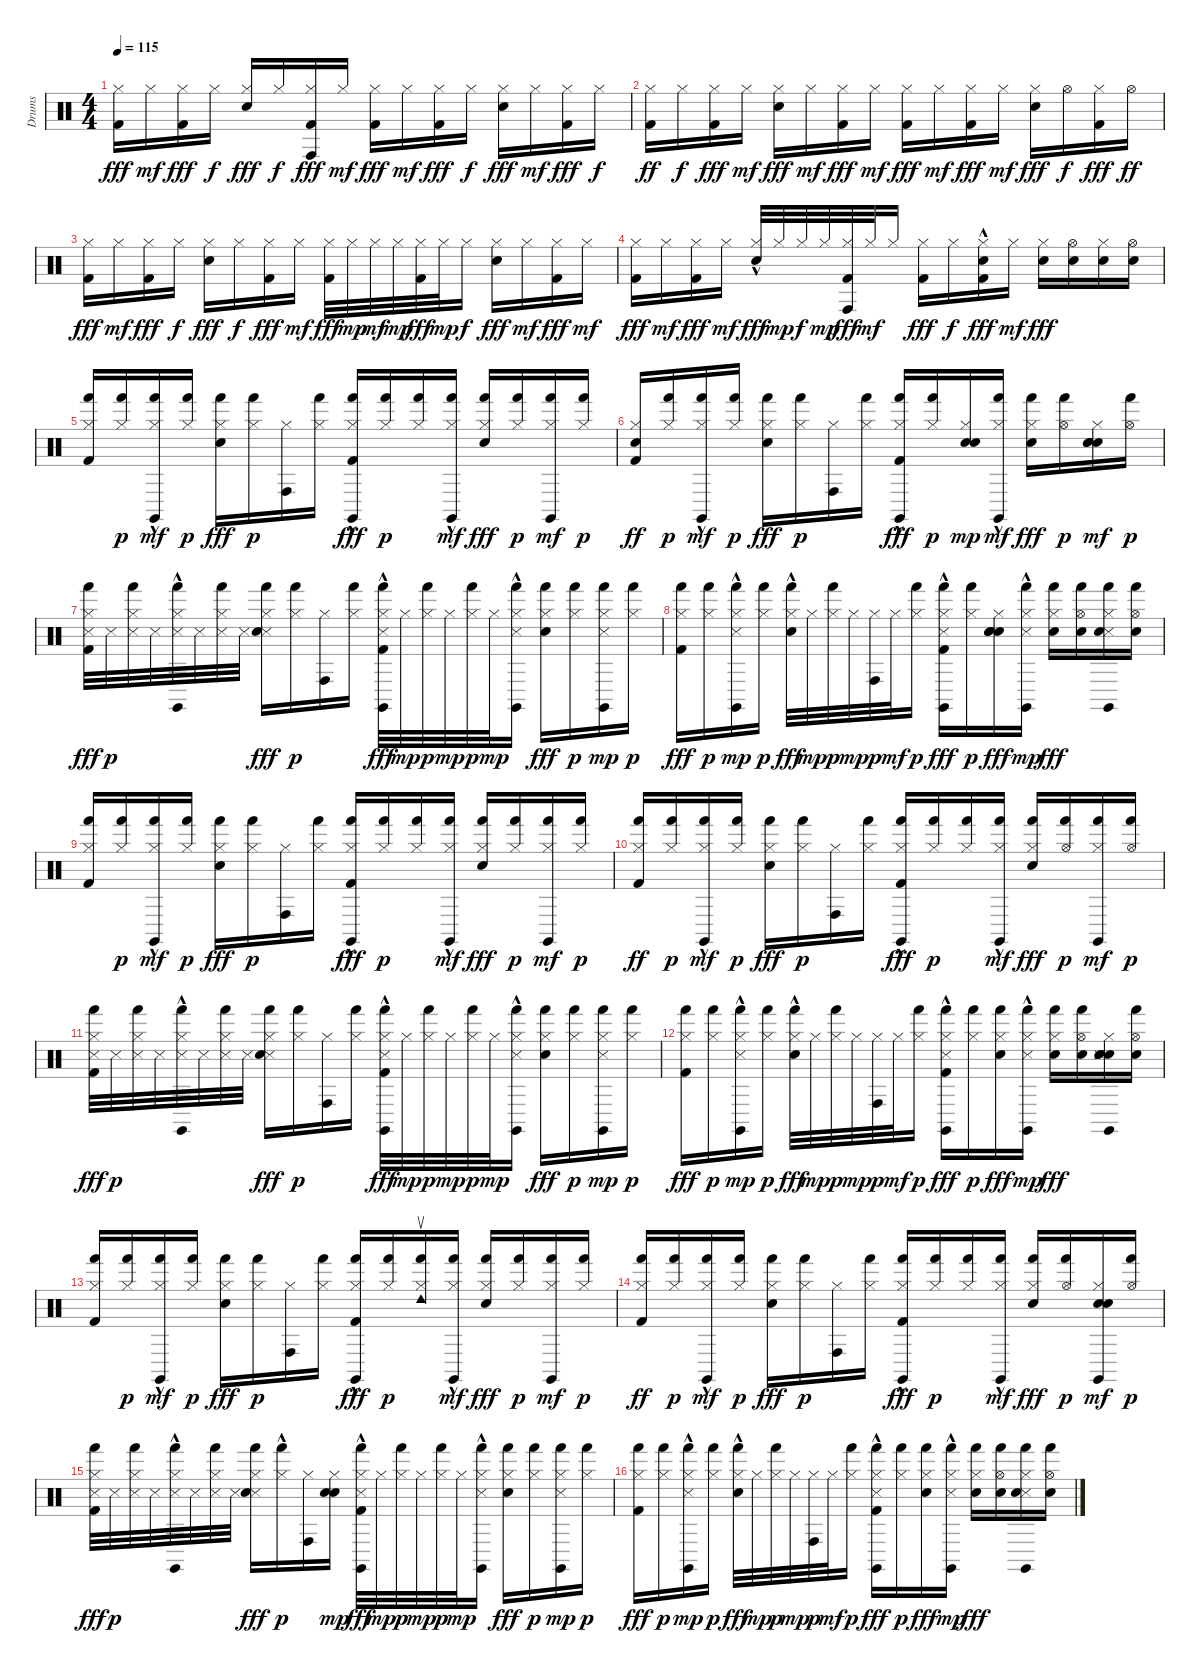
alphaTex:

\track ("Drums" "Drums") {instrument percussion}
\staff {score}
\articulation defaults
\ts (4 4)
\tempo 115
\clef neutral
\ks c
("Hi-Hat (closed)" "Kick (hit) 2").16{dy fff} "Hi-Hat (closed)".16{dy mf} ("Hi-Hat (closed)" "Kick (hit) 2").16{dy fff} "Hi-Hat (closed)".16{dy f} ("Hi-Hat (closed)" "Snare (hit) 2").16{dy fff} "Hi-Hat (closed)".16{dy f} ("Hi-Hat (closed)" "Conga high (hit)" "Kick (hit) 2").16{dy fff} "Hi-Hat (closed)".16{dy mf} ("Hi-Hat (closed)" "Kick (hit) 2").16{dy fff} "Hi-Hat (closed)".16{dy mf} ("Hi-Hat (closed)" "Kick (hit) 2").16{dy fff} "Hi-Hat (closed)".16{dy f} ("Hi-Hat (closed)" "Snare (hit) 2").16{dy fff} "Hi-Hat (closed)".16{dy mf} ("Hi-Hat (closed)" "Kick (hit) 2").16{dy fff} "Hi-Hat (closed)".16{dy f} |
("Hi-Hat (closed)" "Kick (hit) 2").16{dy ff} "Hi-Hat (closed)".16{dy f} ("Hi-Hat (closed)" "Kick (hit) 2").16{dy fff} "Hi-Hat (closed)".16{dy mf} ("Hi-Hat (closed)" "Snare (hit) 2").16{dy fff} "Hi-Hat (closed)".16{dy mf} ("Hi-Hat (closed)" "Kick (hit) 2").16{dy fff} "Hi-Hat (closed)".16{dy mf} ("Hi-Hat (closed)" "Kick (hit) 2").16{dy fff} "Hi-Hat (closed)".16{dy mf} ("Hi-Hat (closed)" "Kick (hit) 2").16{dy fff} "Hi-Hat (closed)".16{dy mf} ("Hi-Hat (closed)" "Snare (hit) 2").16{dy fff} "Hi-Hat (open)".16{dy f} ("Hi-Hat (closed)" "Kick (hit) 2").16{dy fff} "Hi-Hat (open)".16{dy ff} |
("Hi-Hat (closed)" "Kick (hit) 2").16{dy fff} "Hi-Hat (closed)".16{dy mf} ("Hi-Hat (closed)" "Kick (hit) 2").16{dy fff} "Hi-Hat (closed)".16{dy f} ("Hi-Hat (closed)" "Snare (hit) 2").16{dy fff} "Hi-Hat (closed)".16{dy f} ("Hi-Hat (closed)" "Kick (hit) 2").16{dy fff} "Hi-Hat (closed)".16{dy mf} ("Hi-Hat (closed)" "Kick (hit) 2").32{dy fff} "Hi-Hat (closed)".32{dy mp} "Hi-Hat (closed)".32{dy mf} "Hi-Hat (closed)".32{dy mp} ("Hi-Hat (closed)" "Kick (hit) 2").32{dy fff} "Hi-Hat (closed)".32{dy mp} "Hi-Hat (closed)".16{dy f} ("Hi-Hat (closed)" "Snare (hit) 2").16{dy fff} "Hi-Hat (closed)".16{dy mf} ("Hi-Hat (closed)" "Kick (hit) 2").16{dy fff} "Hi-Hat (closed)".16{dy mf} |
("Hi-Hat (closed)" "Kick (hit) 2").16{dy fff} "Hi-Hat (closed)".16{dy mf} ("Hi-Hat (closed)" "Kick (hit) 2").16{dy fff} "Hi-Hat (closed)".16{dy mf} ("Hi-Hat (closed)" "Snare (hit) 2"{hac}).32{dy fff} "Hi-Hat (closed)".32{dy mp} "Hi-Hat (closed)".32{dy f} "Hi-Hat (closed)".32{dy mp} ("Hi-Hat (closed)" "Conga high (hit)" "Kick (hit) 2").32{dy fff} "Hi-Hat (closed)".32{dy mf} "Hi-Hat (closed)".16 ("Hi-Hat (closed)" "Kick (hit) 2").16{dy fff} "Hi-Hat (closed)".16{dy f} ("Hi-Hat (closed)" "Snare (hit) 2" "Kick (hit) 2"{hac}).16{dy fff} "Hi-Hat (closed)".16{dy mf} ("Hi-Hat (closed)" "Snare (hit) 2").16{dy fff} ("Hi-Hat (open)" "Snare (hit) 2").16 ("Hi-Hat (closed)" "Snare (hit) 2").16 ("Hi-Hat (open)" "Snare (hit) 2").16 |
("Hi-Hat (closed)" "Hand (hit)" "Kick (hit) 2").16 ("Hi-Hat (closed)" "Hand (hit)").16{dy p} ("Hi-Hat (closed)" "Hand (hit)" "Claves (hit)"{hac}).16{dy mf} ("Hi-Hat (closed)" "Hand (hit)").16{dy p} ("Hi-Hat (closed)" "Hand (hit)" "Snare (hit) 2").16{dy fff} ("Hi-Hat (closed)" "Hand (hit)").16{dy p} ("Hi-Hat (closed)" "Conga high (hit)").16 ("Hi-Hat (closed)" "Hand (hit)").16 ("Hi-Hat (closed)" "Hand (hit)" "Claves (hit)"{hac} "Kick (hit) 2").16{dy fff} ("Hi-Hat (closed)" "Hand (hit)").16{dy p} ("Hi-Hat (closed)" "Hand (hit)").16 ("Hi-Hat (closed)" "Hand (hit)" "Claves (hit)"{hac}).16{dy mf} ("Hi-Hat (closed)" "Hand (hit)" "Snare (hit) 2").16{dy fff} ("Hi-Hat (closed)" "Hand (hit)").16{dy p} ("Hi-Hat (closed)" "Hand (hit)" "Claves (hit)").16{dy mf} ("Hi-Hat (closed)" "Hand (hit)").16{dy p} |
("Hi-Hat (closed)" "Snare (hit)" "Kick (hit) 2").16{dy ff} ("Hi-Hat (closed)" "Hand (hit)").16{dy p} ("Hi-Hat (closed)" "Hand (hit)" "Claves (hit)"{hac}).16{dy mf} ("Hi-Hat (closed)" "Hand (hit)").16{dy p} ("Hi-Hat (closed)" "Hand (hit)" "Snare (hit) 2").16{dy fff} ("Hi-Hat (closed)" "Hand (hit)").16{dy p} ("Hi-Hat (closed)" "Conga high (hit)").16 ("Hi-Hat (closed)" "Hand (hit)").16 ("Hi-Hat (closed)" "Hand (hit)" "Claves (hit)"{hac} "Kick (hit) 2").16{dy fff} ("Hi-Hat (closed)" "Hand (hit)").16{dy p} ("Hi-Hat (closed)" "Snare (hit)" "Snare (hit)").16{dy mp} ("Hi-Hat (closed)" "Hand (hit)" "Claves (hit)"{hac}).16{dy mf} ("Hi-Hat (closed)" "Hand (hit)" "Snare (hit) 2").16{dy fff} ("Hi-Hat (open)" "Hand (hit)").16{dy p} ("Hi-Hat (closed)" "Snare (hit)" "Snare (hit)" "Snare (hit)").16{dy mf} ("Hi-Hat (open)" "Hand (hit)").16{dy p} |
("Hi-Hat (closed)" "Hand (hit)" "Snare (side stick) 3" "Kick (hit) 2").32{dy fff} "Snare (side stick) 3".32{dy p} ("Hi-Hat (closed)" "Hand (hit)" "Snare (side stick) 3").32 "Snare (side stick) 3".32 ("Hi-Hat (closed)" "Hand (hit)" "Claves (hit)"{hac} "Snare (side stick) 3").32 "Snare (side stick) 3".32 ("Hi-Hat (closed)" "Hand (hit)" "Snare (side stick) 3").32 "Snare (side stick) 3".32 ("Hi-Hat (closed)" "Hand (hit)" "Snare (side stick) 3" "Snare (hit) 2").16{dy fff} ("Hi-Hat (closed)" "Hand (hit)").16{dy p} ("Hi-Hat (closed)" "Conga high (hit)").16 ("Hi-Hat (closed)" "Hand (hit)").16 ("Hi-Hat (closed)" "Hand (hit)" "Claves (hit)"{hac} "Snare (side stick) 3"{hac} "Kick (hit) 2").32{dy fff} "Hi-Hat (closed)".32{dy mp} ("Hi-Hat (closed)" "Hand (hit)").32{dy p} "Hi-Hat (closed)".32{dy mp} ("Hi-Hat (closed)" "Hand (hit)").32{dy p} "Hi-Hat (closed)".32{dy mp} ("Hi-Hat (closed)" "Hand (hit)" "Claves (hit)"{hac} "Snare (side stick) 3"{hac}).16 ("Hi-Hat (closed)" "Hand (hit)" "Snare (hit) 2").16{dy fff} ("Hi-Hat (closed)" "Hand (hit)").16{dy p} ("Hi-Hat (closed)" "Hand (hit)" "Claves (hit)" "Snare (side stick) 3").16{dy mp} ("Hi-Hat (closed)" "Hand (hit)").16{dy p} |
("Hi-Hat (closed)" "Hand (hit)" "Kick (hit) 2").16{dy fff} ("Hi-Hat (closed)" "Hand (hit)").16{dy p} ("Hi-Hat (closed)" "Hand (hit)" "Claves (hit)"{hac} "Snare (side stick) 3"{hac}).16{dy mp} ("Hi-Hat (closed)" "Hand (hit)").16{dy p} ("Hi-Hat (closed)" "Hand (hit)" "Snare (hit) 2"{hac}).32{dy fff} "Hi-Hat (closed)".32{dy mp} ("Hi-Hat (closed)" "Hand (hit)").32{dy p} "Hi-Hat (closed)".32{dy mp} ("Hi-Hat (closed)" "Conga high (hit)").32{dy p} "Hi-Hat (closed)".32{dy mf} ("Hi-Hat (closed)" "Hand (hit)").16{dy p} ("Hi-Hat (closed)" "Hand (hit)" "Claves (hit)"{hac} "Snare (side stick) 3"{hac} "Kick (hit) 2").16{dy fff} ("Hi-Hat (closed)" "Hand (hit)").16{dy p} ("Hi-Hat (closed)" "Snare (hit)" "Snare (hit)" "Snare (hit) 2").16{dy fff} ("Hi-Hat (closed)" "Hand (hit)" "Claves (hit)"{hac} "Snare (side stick) 3"{hac}).16{dy mp} ("Hi-Hat (closed)" "Hand (hit)" "Snare (hit) 2").16{dy fff} ("Hi-Hat (open)" "Hand (hit)" "Snare (hit) 2").16 ("Hi-Hat (closed)" "Hand (hit)" "Claves (hit)" "Snare (side stick) 3" "Snare (hit) 2").16 ("Hi-Hat (open)" "Hand (hit)" "Snare (hit) 2").16 |
("Hi-Hat (closed)" "Hand (hit)" "Kick (hit) 2").16 ("Hi-Hat (closed)" "Hand (hit)").16{dy p} ("Hi-Hat (closed)" "Hand (hit)" "Claves (hit)"{hac}).16{dy mf} ("Hi-Hat (closed)" "Hand (hit)").16{dy p} ("Hi-Hat (closed)" "Hand (hit)" "Snare (hit) 2").16{dy fff} ("Hi-Hat (closed)" "Hand (hit)").16{dy p} ("Hi-Hat (closed)" "Conga high (hit)").16 ("Hi-Hat (closed)" "Hand (hit)").16 ("Hi-Hat (closed)" "Hand (hit)" "Claves (hit)"{hac} "Kick (hit) 2").16{dy fff} ("Hi-Hat (closed)" "Hand (hit)").16{dy p} ("Hi-Hat (closed)" "Hand (hit)").16 ("Hi-Hat (closed)" "Hand (hit)" "Claves (hit)"{hac}).16{dy mf} ("Hi-Hat (closed)" "Hand (hit)" "Snare (hit) 2").16{dy fff} ("Hi-Hat (closed)" "Hand (hit)").16{dy p} ("Hi-Hat (closed)" "Hand (hit)" "Claves (hit)").16{dy mf} ("Hi-Hat (closed)" "Hand (hit)").16{dy p} |
("Hi-Hat (closed)" "Hand (hit)" "Kick (hit) 2").16{dy ff} ("Hi-Hat (closed)" "Hand (hit)").16{dy p} ("Hi-Hat (closed)" "Hand (hit)" "Claves (hit)"{hac}).16{dy mf} ("Hi-Hat (closed)" "Hand (hit)").16{dy p} ("Hi-Hat (closed)" "Hand (hit)" "Snare (hit) 2").16{dy fff} ("Hi-Hat (closed)" "Hand (hit)").16{dy p} ("Hi-Hat (closed)" "Conga high (hit)").16 ("Hi-Hat (closed)" "Hand (hit)").16 ("Hi-Hat (closed)" "Hand (hit)" "Claves (hit)"{hac} "Kick (hit) 2").16{dy fff} ("Hi-Hat (closed)" "Hand (hit)").16{dy p} ("Hi-Hat (closed)" "Hand (hit)").16 ("Hi-Hat (closed)" "Hand (hit)" "Claves (hit)"{hac}).16{dy mf} ("Hi-Hat (closed)" "Hand (hit)" "Snare (hit) 2").16{dy fff} ("Hi-Hat (open)" "Hand (hit)").16{dy p} ("Hi-Hat (closed)" "Hand (hit)" "Claves (hit)").16{dy mf} ("Hi-Hat (open)" "Hand (hit)").16{dy p} |
("Hi-Hat (closed)" "Hand (hit)" "Snare (side stick) 3" "Kick (hit) 2").32{dy fff} "Snare (side stick) 3".32{dy p} ("Hi-Hat (closed)" "Hand (hit)" "Snare (side stick) 3").32 "Snare (side stick) 3".32 ("Hi-Hat (closed)" "Hand (hit)" "Claves (hit)"{hac} "Snare (side stick) 3").32 "Snare (side stick) 3".32 ("Hi-Hat (closed)" "Hand (hit)" "Snare (side stick) 3").32 "Snare (side stick) 3".32 ("Hi-Hat (closed)" "Hand (hit)" "Snare (side stick) 3" "Snare (hit) 2").16{dy fff} ("Hi-Hat (closed)" "Hand (hit)").16{dy p} ("Hi-Hat (closed)" "Conga high (hit)").16 ("Hi-Hat (closed)" "Hand (hit)").16 ("Hi-Hat (closed)" "Hand (hit)" "Claves (hit)"{hac} "Snare (side stick) 3"{hac} "Kick (hit) 2").32{dy fff} "Hi-Hat (closed)".32{dy mp} ("Hi-Hat (closed)" "Hand (hit)").32{dy p} "Hi-Hat (closed)".32{dy mp} ("Hi-Hat (closed)" "Hand (hit)").32{dy p} "Hi-Hat (closed)".32{dy mp} ("Hi-Hat (closed)" "Hand (hit)" "Claves (hit)"{hac} "Snare (side stick) 3"{hac}).16 ("Hi-Hat (closed)" "Hand (hit)" "Snare (hit) 2").16{dy fff} ("Hi-Hat (closed)" "Hand (hit)").16{dy p} ("Hi-Hat (closed)" "Hand (hit)" "Claves (hit)" "Snare (side stick) 3").16{dy mp} ("Hi-Hat (closed)" "Hand (hit)").16{dy p} |
("Hi-Hat (closed)" "Hand (hit)" "Kick (hit) 2").16{dy fff} ("Hi-Hat (closed)" "Hand (hit)").16{dy p} ("Hi-Hat (closed)" "Hand (hit)" "Claves (hit)"{hac} "Snare (side stick) 3"{hac}).16{dy mp} ("Hi-Hat (closed)" "Hand (hit)").16{dy p} ("Hi-Hat (closed)" "Hand (hit)" "Snare (hit) 2"{hac}).32{dy fff} "Hi-Hat (closed)".32{dy mp} ("Hi-Hat (closed)" "Hand (hit)").32{dy p} "Hi-Hat (closed)".32{dy mp} ("Hi-Hat (closed)" "Conga high (hit)").32{dy p} "Hi-Hat (closed)".32{dy mf} ("Hi-Hat (closed)" "Hand (hit)").16{dy p} ("Hi-Hat (closed)" "Hand (hit)" "Claves (hit)"{hac} "Snare (side stick) 3"{hac} "Kick (hit) 2").16{dy fff} ("Hi-Hat (closed)" "Hand (hit)").16{dy p} ("Hi-Hat (closed)" "Hand (hit)" "Snare (hit) 2").16{dy fff} ("Hi-Hat (closed)" "Hand (hit)" "Claves (hit)"{hac} "Snare (side stick) 3"{hac}).16{dy mp} ("Hi-Hat (closed)" "Hand (hit)" "Snare (hit) 2").16{dy fff} ("Hi-Hat (open)" "Hand (hit)" "Snare (hit) 2").16 ("Hi-Hat (closed)" "Snare (hit)" "Snare (hit)" "Claves (hit)" "Snare (side stick) 3" "Snare (hit) 2").16 ("Hi-Hat (open)" "Hand (hit)" "Snare (hit) 2").16 |
("Hi-Hat (closed)" "Hand (hit)" "Kick (hit) 2").16 ("Hi-Hat (closed)" "Hand (hit)").16{dy p} ("Hi-Hat (closed)" "Hand (hit)" "Claves (hit)"{hac}).16{dy mf} ("Hi-Hat (closed)" "Hand (hit)").16{dy p} ("Hi-Hat (closed)" "Hand (hit)" "Snare (hit) 2").16{dy fff} ("Hi-Hat (closed)" "Hand (hit)").16{dy p} ("Hi-Hat (closed)" "Conga high (hit)").16 ("Hi-Hat (closed)" "Hand (hit)").16 ("Hi-Hat (closed)" "Hand (hit)" "Claves (hit)"{hac} "Kick (hit) 2").16{dy fff} ("Hi-Hat (closed)" "Hand (hit)").16{dy p} ("Hi-Hat (closed)" "Tambourine (return)" "Hand (hit)").16 ("Hi-Hat (closed)" "Hand (hit)" "Claves (hit)"{hac}).16{dy mf} ("Hi-Hat (closed)" "Hand (hit)" "Snare (hit) 2").16{dy fff} ("Hi-Hat (closed)" "Hand (hit)").16{dy p} ("Hi-Hat (closed)" "Hand (hit)" "Claves (hit)").16{dy mf} ("Hi-Hat (closed)" "Hand (hit)").16{dy p} |
("Hi-Hat (closed)" "Hand (hit)" "Kick (hit) 2").16{dy ff} ("Hi-Hat (closed)" "Hand (hit)").16{dy p} ("Hi-Hat (closed)" "Hand (hit)" "Claves (hit)"{hac}).16{dy mf} ("Hi-Hat (closed)" "Hand (hit)").16{dy p} ("Hi-Hat (closed)" "Hand (hit)" "Snare (hit) 2").16{dy fff} ("Hi-Hat (closed)" "Hand (hit)").16{dy p} ("Hi-Hat (closed)" "Conga high (hit)").16 ("Hi-Hat (closed)" "Hand (hit)").16 ("Hi-Hat (closed)" "Hand (hit)" "Claves (hit)"{hac} "Kick (hit) 2").16{dy fff} ("Hi-Hat (closed)" "Hand (hit)").16{dy p} ("Hi-Hat (closed)" "Hand (hit)").16 ("Hi-Hat (closed)" "Hand (hit)" "Claves (hit)"{hac}).16{dy mf} ("Hi-Hat (closed)" "Hand (hit)" "Snare (hit) 2").16{dy fff} ("Hi-Hat (open)" "Hand (hit)").16{dy p} ("Hi-Hat (closed)" "Snare (hit)" "Snare (hit)" "Claves (hit)").16{dy mf} ("Hi-Hat (open)" "Hand (hit)").16{dy p} |
("Hi-Hat (closed)" "Hand (hit)" "Snare (side stick) 3" "Kick (hit) 2").32{dy fff} "Snare (side stick) 3".32{dy p} ("Hi-Hat (closed)" "Hand (hit)" "Snare (side stick) 3").32 "Snare (side stick) 3".32 ("Hi-Hat (closed)" "Hand (hit)" "Claves (hit)"{hac} "Snare (side stick) 3").32 "Snare (side stick) 3".32 ("Hi-Hat (closed)" "Hand (hit)" "Snare (side stick) 3").32 "Snare (side stick) 3".32 ("Hi-Hat (closed)" "Hand (hit)" "Snare (side stick) 3" "Snare (hit) 2").16{dy fff} ("Hi-Hat (closed)" "Hand (hit)"{hac}).16{dy p} ("Hi-Hat (closed)" "Conga high (hit)").16 ("Hi-Hat (closed)" "Snare (hit)" "Snare (hit)").16{dy mp} ("Hi-Hat (closed)" "Hand (hit)" "Claves (hit)"{hac} "Snare (side stick) 3"{hac} "Kick (hit) 2").32{dy fff} "Hi-Hat (closed)".32{dy mp} ("Hi-Hat (closed)" "Hand (hit)").32{dy p} "Hi-Hat (closed)".32{dy mp} ("Hi-Hat (closed)" "Hand (hit)").32{dy p} "Hi-Hat (closed)".32{dy mp} ("Hi-Hat (closed)" "Hand (hit)" "Claves (hit)"{hac} "Snare (side stick) 3"{hac}).16 ("Hi-Hat (closed)" "Hand (hit)" "Snare (hit) 2").16{dy fff} ("Hi-Hat (closed)" "Hand (hit)").16{dy p} ("Hi-Hat (closed)" "Hand (hit)" "Claves (hit)" "Snare (side stick) 3").16{dy mp} ("Hi-Hat (closed)" "Hand (hit)").16{dy p} |
("Hi-Hat (closed)" "Hand (hit)" "Kick (hit) 2").16{dy fff} ("Hi-Hat (closed)" "Hand (hit)").16{dy p} ("Hi-Hat (closed)" "Hand (hit)" "Claves (hit)"{hac} "Snare (side stick) 3"{hac}).16{dy mp} ("Hi-Hat (closed)" "Hand (hit)").16{dy p} ("Hi-Hat (closed)" "Hand (hit)" "Snare (hit) 2"{hac}).32{dy fff} "Hi-Hat (closed)".32{dy mp} ("Hi-Hat (closed)" "Hand (hit)").32{dy p} "Hi-Hat (closed)".32{dy mp} ("Hi-Hat (closed)" "Conga high (hit)").32{dy p} "Hi-Hat (closed)".32{dy mf} ("Hi-Hat (closed)" "Hand (hit)").16{dy p} ("Hi-Hat (closed)" "Hand (hit)" "Claves (hit)"{hac} "Snare (side stick) 3"{hac} "Kick (hit) 2").16{dy fff} ("Hi-Hat (closed)" "Hand (hit)").16{dy p} ("Hi-Hat (closed)" "Hand (hit)" "Snare (hit) 2").16{dy fff} ("Hi-Hat (closed)" "Hand (hit)" "Claves (hit)"{hac} "Snare (side stick) 3"{hac}).16{dy mp} ("Hi-Hat (closed)" "Hand (hit)" "Snare (hit) 2").16{dy fff} ("Hi-Hat (open)" "Hand (hit)" "Snare (hit) 2").16 ("Hi-Hat (closed)" "Hand (hit)" "Claves (hit)" "Snare (side stick) 3" "Snare (hit) 2").16 ("Hi-Hat (open)" "Hand (hit)" "Snare (hit) 2").16
